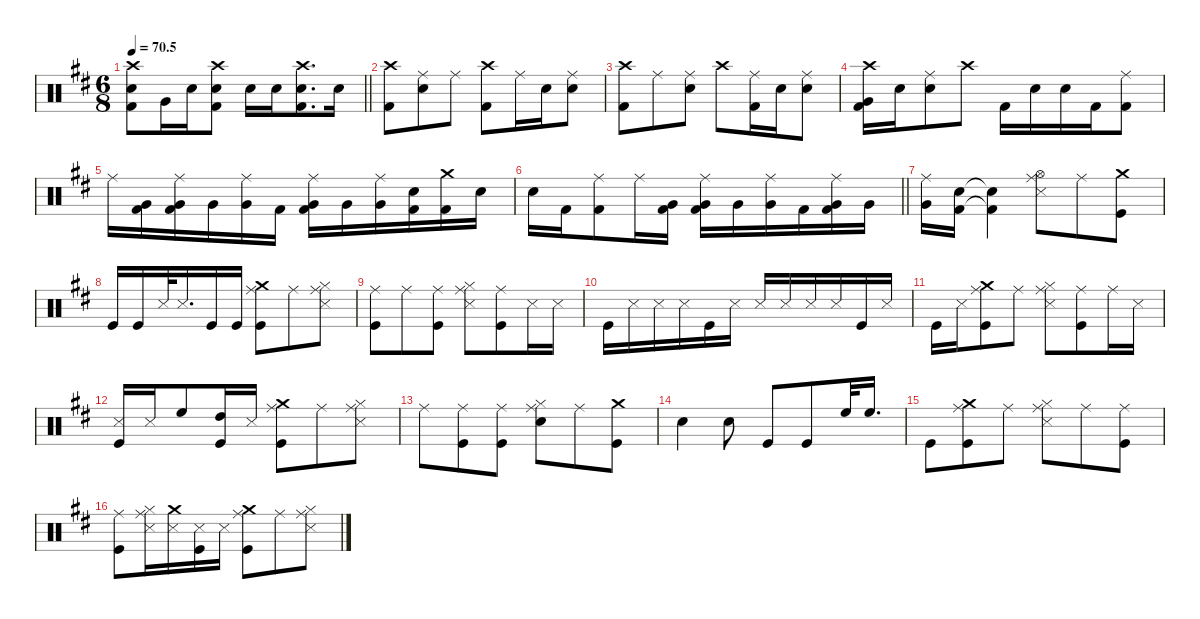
\defaultSystemsLayout 4
\hideDynamics
\bracketExtendMode groupsimilarinstruments
\singleTrackTrackNamePolicy hidden
\multiTrackTrackNamePolicy hidden
\firstSystemTrackNameMode fullname
\firstSystemTrackNameOrientation horizontal
\otherSystemsTrackNameOrientation horizontal
\track ("Drumkit" "drm.") {defaultSystemsLayout 4 instrument percussion}
\staff {score}
\articulation defaults
\ts (6 8)
\tempo
70.5
\accidentals auto
\clef neutral
\ottava regular
\simile none
\barLineRight lightlight
\ks bminor
("Snare (hit) 2"{acc forcenatural} "Kick (hit) 2"{acc forcenatural} "Crash high (hit)"{acc #}).8{dy ff beam Down} "Very Low Tom (hit)"{acc forcenatural}.16{beam Down} "Snare (hit) 2"{acc forcenatural}.16{beam Down} ("Snare (hit) 2"{acc forcenatural} "Kick (hit) 2"{acc forcenatural} "Crash high (hit)"{acc #}).8{beam Down} "Snare (hit) 2"{acc forcenatural}.16{beam Down} "Snare (hit) 2"{acc forcenatural}.16{beam Down} ("Snare (hit) 2"{acc forcenatural} "Kick (hit) 2"{acc forcenatural} "Crash high (hit)"{acc #}).8{d beam Down} "Snare (hit) 2"{acc forcenatural}.16{beam Down} |
("Crash high (hit)"{acc #} "Kick (hit) 2"{acc forcenatural}).8{beam Down} ("Ride (middle)"{acc #} "Snare (hit) 2"{acc forcenatural}).8{beam Down} "Ride (middle)"{acc #}.8{beam Down} ("Crash high (hit)"{acc #} "Kick (hit) 2"{acc forcenatural}).8{beam Down} "Ride (middle)"{acc #}.16{beam Down} "Snare (hit) 2"{acc forcenatural}.16{beam Down} ("Ride (middle)"{acc #} "Snare (hit) 2"{acc forcenatural}).8{beam Down} |
("Crash high (hit)"{acc #} "Kick (hit) 2"{acc forcenatural}).8{beam Down} "Ride (middle)"{acc #}.8{beam Down} ("Snare (hit) 2"{acc forcenatural} "Ride (middle)"{acc #}).8{beam Down} "Crash high (hit)"{acc #}.8{beam Down} ("Ride (middle)"{acc #} "Kick (hit) 2"{acc forcenatural}).16{beam Down} "Snare (hit) 2"{acc forcenatural}.16{beam Down} ("Snare (hit) 2"{acc forcenatural} "Ride (middle)"{acc #}).8{beam Down} |
("Very Low Tom (hit)"{acc forcenatural} "Kick (hit) 2"{acc forcenatural} "Crash high (hit)"{acc #}).16{beam Down} "Snare (hit) 2"{acc forcenatural}.16{beam Down} ("Ride (middle)"{acc #} "Snare (hit) 2"{acc forcenatural}).8{beam Down} "Crash high (hit)"{acc #}.8{beam Down} "Kick (hit) 2"{acc forcenatural}.16{beam Down} "Snare (hit) 2"{acc forcenatural}.16{beam Down} "Snare (hit) 2"{acc forcenatural}.16{beam Down} "Kick (hit) 2"{acc forcenatural}.16{beam Down} ("Ride (middle)"{acc #} "Kick (hit) 2"{acc forcenatural}).8{beam Down} |
"Ride (middle)"{acc #}.16{beam Down} ("Kick (hit) 2"{acc forcenatural} "Very Low Tom (hit)"{acc forcenatural}).16{beam Down} ("Very Low Tom (hit)"{acc forcenatural} "Ride (middle)"{acc #} "Kick (hit) 2"{acc forcenatural}).16{beam Down} "Very Low Tom (hit)"{acc forcenatural}.16{beam Down} ("Very Low Tom (hit)"{acc forcenatural} "Ride (middle)"{acc #}).16{beam Down} "Kick (hit) 2"{acc forcenatural}.16{beam Down} ("Very Low Tom (hit)"{acc forcenatural} "Ride (middle)"{acc #} "Kick (hit) 2"{acc forcenatural}).16{beam Down} "Very Low Tom (hit)"{acc forcenatural}.16{beam Down} ("Very Low Tom (hit)"{acc forcenatural} "Ride (middle)"{acc #}).16{beam Down} ("Kick (hit) 2"{acc forcenatural} "Snare (hit) 2"{acc forcenatural}).16{beam Down} ("Kick (hit) 2"{acc forcenatural} "Crash medium (hit)"{acc forcenatural}).16{beam Down} "Snare (hit) 2"{acc forcenatural}.16{beam Down} |
\barLineRight lightlight "Snare (hit) 2"{acc forcenatural}.16{beam Down} "Kick (hit) 2"{acc forcenatural}.16{beam Down}
("Ride (middle)"{acc #} "Kick (hit) 2"{acc forcenatural}).8{beam Down} "Ride (middle)"{acc #}.16{beam Down} ("Kick (hit) 2"{acc forcenatural} "Very Low Tom (hit)"{acc forcenatural}).16{beam Down} ("Very Low Tom (hit)"{acc forcenatural} "Ride (middle)"{acc #} "Kick (hit) 2"{acc forcenatural}).16{beam Down} "Very Low Tom (hit)"{acc forcenatural}.16{beam Down} ("Very Low Tom (hit)"{acc forcenatural} "Ride (middle)"{acc #}).16{beam Down} "Kick (hit) 2"{acc forcenatural}.16{beam Down} ("Very Low Tom (hit)"{acc forcenatural} "Ride (middle)"{acc #} "Kick (hit) 2"{acc forcenatural}).16{beam Down} "Very Low Tom (hit)"{acc forcenatural}.16{beam Down} |
("Very Low Tom (hit)"{acc forcenatural} "Ride (middle)"{acc #}).16{beam Down} ("Kick (hit) 2"{acc forcenatural} "Snare (hit) 2"{acc forcenatural}).16{beam Down} ("Kick (hit) 2"{t acc forcenatural} "Snare (hit) 2"{t acc forcenatural}).4{dy mf beam Down} ("Hi-Hat (open)"{acc #} "Ride (middle)"{acc #} "Snare (side stick) 3"{acc forcenatural}).8{dy ff beam Down} "Ride (middle)"{acc #}.8{dy f beam Down} ("Kick (hit)"{acc forcenatural} "Crash medium (hit)"{acc forcenatural}).8{beam Down} |
"Kick (hit)"{acc forcenatural}.16{beam Up} "Kick (hit)"{acc forcenatural}.16{beam Up} "Snare (side stick) 3"{acc forcenatural}.32{dy mf beam Up} "Snare (side stick) 3"{acc forcenatural}.16{d dy p beam Up} "Kick (hit)"{acc forcenatural}.16{dy f beam Up} "Kick (hit)"{acc forcenatural}.16{beam Up} ("Crash medium (hit)"{acc forcenatural} "Kick (hit)"{acc forcenatural} "Ride (middle)"{acc #}).8{dy fff beam Down} "Ride (middle)"{acc #}.8{dy f beam Down} ("Hi-Hat (closed)"{acc #} "Ride (middle)"{acc #} "Snare (side stick) 3"{acc forcenatural}).8{dy ff beam Down} |
("Kick (hit)"{acc forcenatural} "Ride (middle)"{acc #}).8{dy fff beam Down} "Ride (middle)"{acc #}.8{dy f beam Down} ("Kick (hit)"{acc forcenatural} "Ride (middle)"{acc #}).8{beam Down} ("Hi-Hat (closed)"{acc #} "Ride (middle)"{acc #} "Snare (side stick) 3"{acc forcenatural}).8{dy fff beam Down} ("Kick (hit)"{acc forcenatural} "Ride (middle)"{acc #}).8{dy f beam Down} "Snare (side stick) 3"{acc forcenatural}.16{dy ff beam Down} "Snare (side stick) 3"{acc forcenatural}.16{dy mf beam Down} |
"Kick (hit)"{acc forcenatural}.16{dy f beam Down} "Snare (side stick) 3"{acc forcenatural}.16{beam Down} "Snare (side stick) 3"{acc forcenatural}.16{beam Down} "Snare (side stick) 3"{acc forcenatural}.16{dy mp beam Down} "Kick (hit)"{acc forcenatural}.16{dy f beam Down} "Snare (side stick) 3"{acc forcenatural}.16{beam Down} "Snare (side stick) 3"{acc forcenatural}.16{beam Up} "Snare (side stick) 3"{acc forcenatural}.16{beam Up} "Snare (side stick) 3"{acc forcenatural}.16{dy mf beam Up} "Snare (side stick) 3"{acc forcenatural}.16{dy mp beam Up} "Kick (hit)"{acc forcenatural}.16{dy f beam Up} "Snare (side stick) 3"{acc forcenatural}.16{beam Up} |
"Kick (hit)"{acc forcenatural}.16{beam Down} "Snare (side stick) 3"{acc forcenatural}.16{beam Down} ("Crash medium (hit)"{acc forcenatural} "Kick (hit)"{acc forcenatural} "Ride (middle)"{acc #}).8{dy fff beam Down} "Ride (middle)"{acc #}.8{dy f beam Down} ("Hi-Hat (closed)"{acc #} "Ride (middle)"{acc #} "Snare (side stick) 3"{acc forcenatural}).8{dy fff beam Down} ("Kick (hit)"{acc forcenatural} "Ride (middle)"{acc #}).8{beam Down} "Ride (middle)"{acc #}.16{beam Down} "Snare (side stick) 3"{acc forcenatural}.16{beam Down} |
("Kick (hit)"{acc forcenatural} "Snare (side stick) 3"{acc forcenatural}).16{dy f beam Up} "Snare (side stick) 3"{acc forcenatural}.16{beam Up} "High Floor Tom (hit)"{acc forcenatural}.8{dy fff beam Up} ("Kick (hit)"{acc forcenatural} "High Tom (hit)"{acc forcenatural}).16{dy f beam Up} "Snare (side stick) 3"{acc forcenatural}.16{beam Up} ("Crash medium (hit)"{acc forcenatural} "Kick (hit)"{acc forcenatural} "Ride (middle)"{acc #}).8{dy fff beam Down} "Ride (middle)"{acc #}.8{dy f beam Down} ("Hi-Hat (closed)"{acc #} "Ride (middle)"{acc #} "Snare (side stick) 3"{acc forcenatural}).8{dy fff beam Down} |
"Ride (middle)"{acc #}.8{beam Down} ("Kick (hit)"{acc forcenatural} "Ride (middle)"{acc #}).8{beam Down} ("Kick (hit)"{acc forcenatural} "Ride (middle)"{acc #}).8{dy f beam Down} ("Hi-Hat (closed)"{acc #} "Ride (middle)"{acc #} "Snare (hit) 2"{acc forcenatural}).8{dy fff beam Down} "Ride (middle)"{acc #}.8{dy mp beam Down} ("Kick (hit)"{acc forcenatural} "Crash medium (hit)"{acc forcenatural}).8{dy f beam Down} |
"Snare (hit) 2"{acc forcenatural}.4{dy fff beam Down} "Snare (hit) 2"{acc forcenatural}.8{dy f beam Down} "Kick (hit)"{acc forcenatural}.8{beam Up} "Kick (hit)"{acc forcenatural}.8{beam Up} "High Floor Tom (hit)"{acc forcenatural}.32{dy fff beam Up} "High Floor Tom (hit)"{acc forcenatural}.16{d dy f beam Up} |
"Kick (hit)"{acc forcenatural}.8{beam Down} ("Crash medium (hit)"{acc forcenatural} "Kick (hit)"{acc forcenatural} "Ride (middle)"{acc #}).8{dy fff beam Down} "Ride (middle)"{acc #}.8{dy f beam Down} ("Snare (side stick) 3"{acc forcenatural} "Hi-Hat (closed)"{acc #} "Ride (middle)"{acc #}).8{dy fff beam Down} "Ride (middle)"{acc #}.8{beam Down} ("Kick (hit)"{acc forcenatural} "Ride (middle)"{acc #}).8{beam Down} |
("Kick (hit)"{acc forcenatural} "Ride (middle)"{acc #}).8{dy f beam Down} ("Snare (side stick) 3"{acc forcenatural} "Hi-Hat (closed)"{acc #} "Ride (middle)"{acc #}).16{dy fff beam Down} ("Snare (side stick) 3"{acc forcenatural} "Crash medium (hit)"{acc forcenatural}).16{dy mf beam Down} ("Kick (hit)"{acc forcenatural} "Snare (side stick) 3"{acc forcenatural}).16{dy f beam Down} "Snare (side stick) 3"{acc forcenatural}.16{beam Down} ("Crash medium (hit)"{acc forcenatural} "Kick (hit)"{acc forcenatural} "Ride (middle)"{acc #}).8{dy fff beam Down} "Ride (middle)"{acc #}.8{dy f beam Down} ("Hi-Hat (closed)"{acc #} "Ride (middle)"{acc #} "Snare (side stick) 3"{acc forcenatural}).8{dy fff beam Down}
